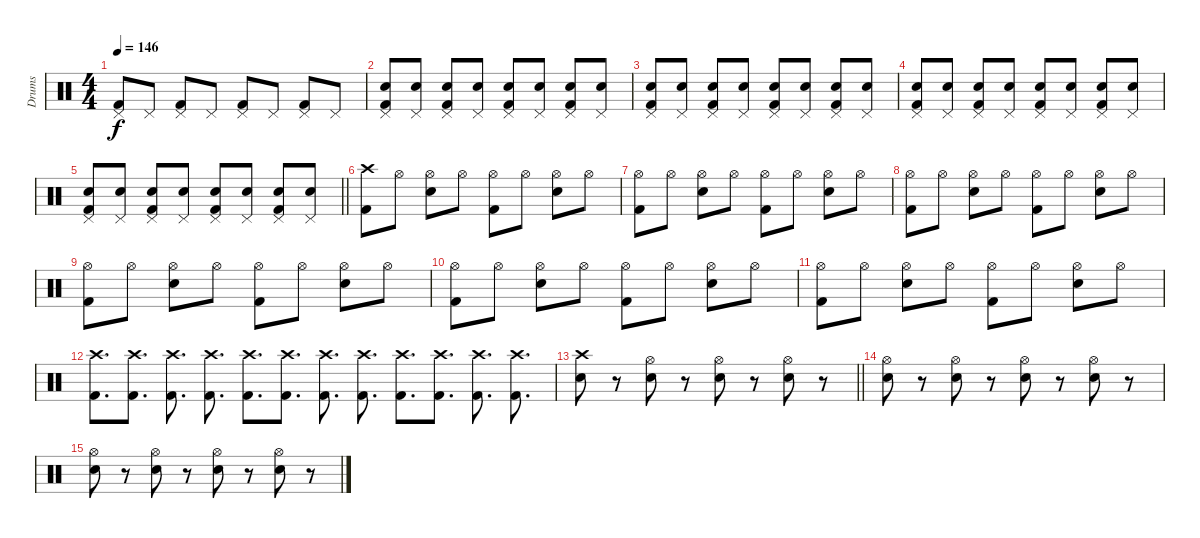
\track ("Drums" "Drums") {instrument percussion}
\staff {score}
\articulation defaults
\ts (4 4)
\tempo 146
\clef neutral
\ks c
("Pedal Hi-Hat (hit)" "Kick (hit) 2").8{dy f} "Pedal Hi-Hat (hit)".8 ("Pedal Hi-Hat (hit)" "Kick (hit) 2").8 "Pedal Hi-Hat (hit)".8 ("Pedal Hi-Hat (hit)" "Kick (hit) 2").8 "Pedal Hi-Hat (hit)".8 ("Pedal Hi-Hat (hit)" "Kick (hit) 2").8 "Pedal Hi-Hat (hit)".8 |
("Pedal Hi-Hat (hit)" "Snare (hit) 2" "Kick (hit) 2").8 ("Pedal Hi-Hat (hit)" "Snare (hit) 2").8 ("Pedal Hi-Hat (hit)" "Snare (hit) 2" "Kick (hit) 2").8 ("Pedal Hi-Hat (hit)" "Snare (hit) 2").8 ("Pedal Hi-Hat (hit)" "Snare (hit) 2" "Kick (hit) 2").8 ("Pedal Hi-Hat (hit)" "Snare (hit) 2").8 ("Pedal Hi-Hat (hit)" "Snare (hit) 2" "Kick (hit) 2").8 ("Pedal Hi-Hat (hit)" "Snare (hit) 2").8 |
("Pedal Hi-Hat (hit)" "Snare (hit) 2" "Kick (hit) 2").8 ("Pedal Hi-Hat (hit)" "Snare (hit) 2").8 ("Pedal Hi-Hat (hit)" "Snare (hit) 2" "Kick (hit) 2").8 ("Pedal Hi-Hat (hit)" "Snare (hit) 2").8 ("Pedal Hi-Hat (hit)" "Snare (hit) 2" "Kick (hit) 2").8 ("Pedal Hi-Hat (hit)" "Snare (hit) 2").8 ("Pedal Hi-Hat (hit)" "Snare (hit) 2" "Kick (hit) 2").8 ("Pedal Hi-Hat (hit)" "Snare (hit) 2").8 |
("Pedal Hi-Hat (hit)" "Snare (hit) 2" "Kick (hit) 2").8 ("Pedal Hi-Hat (hit)" "Snare (hit) 2").8 ("Pedal Hi-Hat (hit)" "Snare (hit) 2" "Kick (hit) 2").8 ("Pedal Hi-Hat (hit)" "Snare (hit) 2").8 ("Pedal Hi-Hat (hit)" "Snare (hit) 2" "Kick (hit) 2").8 ("Pedal Hi-Hat (hit)" "Snare (hit) 2").8 ("Pedal Hi-Hat (hit)" "Snare (hit) 2" "Kick (hit) 2").8 ("Pedal Hi-Hat (hit)" "Snare (hit) 2").8 |
\barLineRight lightlight
("Pedal Hi-Hat (hit)" "Snare (hit) 2" "Kick (hit) 2").8 ("Pedal Hi-Hat (hit)" "Snare (hit) 2").8 ("Pedal Hi-Hat (hit)" "Snare (hit) 2" "Kick (hit) 2").8 ("Pedal Hi-Hat (hit)" "Snare (hit) 2").8 ("Pedal Hi-Hat (hit)" "Snare (hit) 2" "Kick (hit) 2").8 ("Pedal Hi-Hat (hit)" "Snare (hit) 2").8 ("Pedal Hi-Hat (hit)" "Snare (hit) 2" "Kick (hit) 2").8 ("Pedal Hi-Hat (hit)" "Snare (hit) 2").8 |
("Crash high (hit)" "Kick (hit) 2").8 "Hi-Hat (open)".8 ("Hi-Hat (open)" "Snare (hit) 2").8 "Hi-Hat (open)".8 ("Hi-Hat (open)" "Kick (hit) 2").8 "Hi-Hat (open)".8 ("Hi-Hat (open)" "Snare (hit) 2").8 "Hi-Hat (open)".8 |
("Hi-Hat (open)" "Kick (hit) 2").8 "Hi-Hat (open)".8 ("Hi-Hat (open)" "Snare (hit) 2").8 "Hi-Hat (open)".8 ("Hi-Hat (open)" "Kick (hit) 2").8 "Hi-Hat (open)".8 ("Hi-Hat (open)" "Snare (hit) 2").8 "Hi-Hat (open)".8 |
("Hi-Hat (open)" "Kick (hit) 2").8 "Hi-Hat (open)".8 ("Hi-Hat (open)" "Snare (hit) 2").8 "Hi-Hat (open)".8 ("Hi-Hat (open)" "Kick (hit) 2").8 "Hi-Hat (open)".8 ("Hi-Hat (open)" "Snare (hit) 2").8 "Hi-Hat (open)".8 |
("Hi-Hat (open)" "Kick (hit) 2").8 "Hi-Hat (open)".8 ("Hi-Hat (open)" "Snare (hit) 2").8 "Hi-Hat (open)".8 ("Hi-Hat (open)" "Kick (hit) 2").8 "Hi-Hat (open)".8 ("Hi-Hat (open)" "Snare (hit) 2").8 "Hi-Hat (open)".8 |
("Hi-Hat (open)" "Kick (hit) 2").8 "Hi-Hat (open)".8 ("Hi-Hat (open)" "Snare (hit) 2").8 "Hi-Hat (open)".8 ("Hi-Hat (open)" "Kick (hit) 2").8 "Hi-Hat (open)".8 ("Hi-Hat (open)" "Snare (hit) 2").8 "Hi-Hat (open)".8 |
("Hi-Hat (open)" "Kick (hit) 2").8 "Hi-Hat (open)".8 ("Hi-Hat (open)" "Snare (hit) 2").8 "Hi-Hat (open)".8 ("Hi-Hat (open)" "Kick (hit) 2").8 "Hi-Hat (open)".8 ("Hi-Hat (open)" "Snare (hit) 2").8 "Hi-Hat (open)".8 |
("Crash high (hit)" "Kick (hit) 2").8{d} ("Crash high (hit)" "Kick (hit) 2").8{d} ("Crash high (hit)" "Kick (hit) 2").8{d} ("Crash high (hit)" "Kick (hit) 2").8{d} ("Crash high (hit)" "Kick (hit) 2").8{d} ("Crash high (hit)" "Kick (hit) 2").8{d} ("Crash high (hit)" "Kick (hit) 2").8{d} ("Crash high (hit)" "Kick (hit) 2").8{d} ("Crash high (hit)" "Kick (hit) 2").8{d} ("Crash high (hit)" "Kick (hit) 2").8{d} ("Crash high (hit)" "Kick (hit) 2").8{d} ("Crash high (hit)" "Kick (hit) 2").8{d} |
\barLineRight lightlight
("Crash high (hit)" "Snare (hit) 2").8 r.8 ("Hi-Hat (open)" "Snare (hit) 2").8 r.8 ("Hi-Hat (open)" "Snare (hit) 2").8 r.8 ("Hi-Hat (open)" "Snare (hit) 2").8 r.8 |
("Hi-Hat (open)" "Snare (hit) 2").8 r.8 ("Hi-Hat (open)" "Snare (hit) 2").8 r.8 ("Hi-Hat (open)" "Snare (hit) 2").8 r.8 ("Hi-Hat (open)" "Snare (hit) 2").8 r.8 |
("Hi-Hat (open)" "Snare (hit) 2").8 r.8 ("Hi-Hat (open)" "Snare (hit) 2").8 r.8 ("Hi-Hat (open)" "Snare (hit) 2").8 r.8 ("Hi-Hat (open)" "Snare (hit) 2").8 r.8
